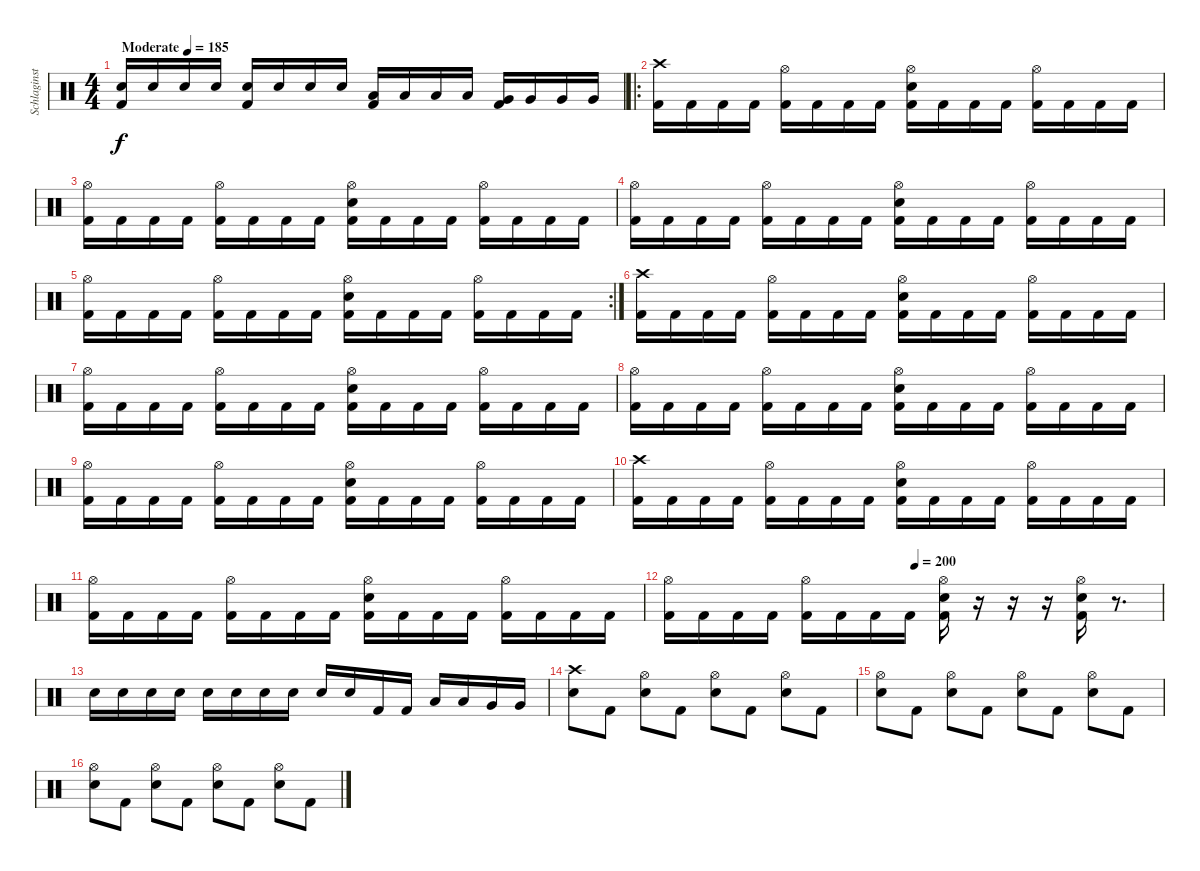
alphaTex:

\track ("Schlaginstrumente - Auswahl" "Schlaginst") {instrument percussion}
\staff {score}
\articulation defaults
\ts (4 4)
\tempo (185 "Moderate")
\clef neutral
\ks c
("Electric Snare (hit)" "Kick (hit) 2").16{dy f} "Electric Snare (hit)".16 "Electric Snare (hit)".16 "Electric Snare (hit)".16 ("Electric Snare (hit)" "Kick (hit) 2").16 "Electric Snare (hit)".16 "Electric Snare (hit)".16 "Electric Snare (hit)".16 ("Low Tom (hit)" "Kick (hit) 2").16 "Low Tom (hit)".16 "Low Tom (hit)".16 "Low Tom (hit)".16 ("Very Low Tom (hit)" "Kick (hit) 2").16 "Very Low Tom (hit)".16 "Very Low Tom (hit)".16 "Very Low Tom (hit)".16 |
\ro
("Crash high (hit)" "Kick (hit) 2").16 "Kick (hit) 2".16 "Kick (hit) 2".16 "Kick (hit) 2".16 ("Hi-Hat (open)" "Kick (hit) 2").16 "Kick (hit) 2".16 "Kick (hit) 2".16 "Kick (hit) 2".16 ("Hi-Hat (open)" "Electric Snare (hit)" "Kick (hit) 2").16 "Kick (hit) 2".16 "Kick (hit) 2".16 "Kick (hit) 2".16 ("Hi-Hat (open)" "Kick (hit) 2").16 "Kick (hit) 2".16 "Kick (hit) 2".16 "Kick (hit) 2".16 |
("Hi-Hat (open)" "Kick (hit) 2").16 "Kick (hit) 2".16 "Kick (hit) 2".16 "Kick (hit) 2".16 ("Hi-Hat (open)" "Kick (hit) 2").16 "Kick (hit) 2".16 "Kick (hit) 2".16 "Kick (hit) 2".16 ("Hi-Hat (open)" "Electric Snare (hit)" "Kick (hit) 2").16 "Kick (hit) 2".16 "Kick (hit) 2".16 "Kick (hit) 2".16 ("Hi-Hat (open)" "Kick (hit) 2").16 "Kick (hit) 2".16 "Kick (hit) 2".16 "Kick (hit) 2".16 |
("Hi-Hat (open)" "Kick (hit) 2").16 "Kick (hit) 2".16 "Kick (hit) 2".16 "Kick (hit) 2".16 ("Hi-Hat (open)" "Kick (hit) 2").16 "Kick (hit) 2".16 "Kick (hit) 2".16 "Kick (hit) 2".16 ("Hi-Hat (open)" "Electric Snare (hit)" "Kick (hit) 2").16 "Kick (hit) 2".16 "Kick (hit) 2".16 "Kick (hit) 2".16 ("Hi-Hat (open)" "Kick (hit) 2").16 "Kick (hit) 2".16 "Kick (hit) 2".16 "Kick (hit) 2".16 |
\rc 2
("Hi-Hat (open)" "Kick (hit) 2").16 "Kick (hit) 2".16 "Kick (hit) 2".16 "Kick (hit) 2".16 ("Hi-Hat (open)" "Kick (hit) 2").16 "Kick (hit) 2".16 "Kick (hit) 2".16 "Kick (hit) 2".16 ("Hi-Hat (open)" "Electric Snare (hit)" "Kick (hit) 2").16 "Kick (hit) 2".16 "Kick (hit) 2".16 "Kick (hit) 2".16 ("Hi-Hat (open)" "Kick (hit) 2").16 "Kick (hit) 2".16 "Kick (hit) 2".16 "Kick (hit) 2".16 |
("Crash high (hit)" "Kick (hit) 2").16 "Kick (hit) 2".16 "Kick (hit) 2".16 "Kick (hit) 2".16 ("Hi-Hat (open)" "Kick (hit) 2").16 "Kick (hit) 2".16 "Kick (hit) 2".16 "Kick (hit) 2".16 ("Hi-Hat (open)" "Electric Snare (hit)" "Kick (hit) 2").16 "Kick (hit) 2".16 "Kick (hit) 2".16 "Kick (hit) 2".16 ("Hi-Hat (open)" "Kick (hit) 2").16 "Kick (hit) 2".16 "Kick (hit) 2".16 "Kick (hit) 2".16 |
("Hi-Hat (open)" "Kick (hit) 2").16 "Kick (hit) 2".16 "Kick (hit) 2".16 "Kick (hit) 2".16 ("Hi-Hat (open)" "Kick (hit) 2").16 "Kick (hit) 2".16 "Kick (hit) 2".16 "Kick (hit) 2".16 ("Hi-Hat (open)" "Electric Snare (hit)" "Kick (hit) 2").16 "Kick (hit) 2".16 "Kick (hit) 2".16 "Kick (hit) 2".16 ("Hi-Hat (open)" "Kick (hit) 2").16 "Kick (hit) 2".16 "Kick (hit) 2".16 "Kick (hit) 2".16 |
("Hi-Hat (open)" "Kick (hit) 2").16 "Kick (hit) 2".16 "Kick (hit) 2".16 "Kick (hit) 2".16 ("Hi-Hat (open)" "Kick (hit) 2").16 "Kick (hit) 2".16 "Kick (hit) 2".16 "Kick (hit) 2".16 ("Hi-Hat (open)" "Electric Snare (hit)" "Kick (hit) 2").16 "Kick (hit) 2".16 "Kick (hit) 2".16 "Kick (hit) 2".16 ("Hi-Hat (open)" "Kick (hit) 2").16 "Kick (hit) 2".16 "Kick (hit) 2".16 "Kick (hit) 2".16 |
("Hi-Hat (open)" "Kick (hit) 2").16 "Kick (hit) 2".16 "Kick (hit) 2".16 "Kick (hit) 2".16 ("Hi-Hat (open)" "Kick (hit) 2").16 "Kick (hit) 2".16 "Kick (hit) 2".16 "Kick (hit) 2".16 ("Hi-Hat (open)" "Electric Snare (hit)" "Kick (hit) 2").16 "Kick (hit) 2".16 "Kick (hit) 2".16 "Kick (hit) 2".16 ("Hi-Hat (open)" "Kick (hit) 2").16 "Kick (hit) 2".16 "Kick (hit) 2".16 "Kick (hit) 2".16 |
("Crash high (hit)" "Kick (hit) 2").16 "Kick (hit) 2".16 "Kick (hit) 2".16 "Kick (hit) 2".16 ("Hi-Hat (open)" "Kick (hit) 2").16 "Kick (hit) 2".16 "Kick (hit) 2".16 "Kick (hit) 2".16 ("Hi-Hat (open)" "Electric Snare (hit)" "Kick (hit) 2").16 "Kick (hit) 2".16 "Kick (hit) 2".16 "Kick (hit) 2".16 ("Hi-Hat (open)" "Kick (hit) 2").16 "Kick (hit) 2".16 "Kick (hit) 2".16 "Kick (hit) 2".16 |
("Hi-Hat (open)" "Kick (hit) 2").16 "Kick (hit) 2".16 "Kick (hit) 2".16 "Kick (hit) 2".16 ("Hi-Hat (open)" "Kick (hit) 2").16 "Kick (hit) 2".16 "Kick (hit) 2".16 "Kick (hit) 2".16 ("Hi-Hat (open)" "Electric Snare (hit)" "Kick (hit) 2").16 "Kick (hit) 2".16 "Kick (hit) 2".16 "Kick (hit) 2".16 ("Hi-Hat (open)" "Kick (hit) 2").16 "Kick (hit) 2".16 "Kick (hit) 2".16 "Kick (hit) 2".16 |
\tempo (200 0.5)
("Hi-Hat (open)" "Kick (hit) 2").16 "Kick (hit) 2".16 "Kick (hit) 2".16 "Kick (hit) 2".16 ("Hi-Hat (open)" "Kick (hit) 2").16 "Kick (hit) 2".16 "Kick (hit) 2".16 "Kick (hit) 2".16 ("Hi-Hat (open)" "Electric Snare (hit)" "Kick (hit) 2").16 r.16 r.16 r.16 ("Hi-Hat (open)" "Electric Snare (hit)" "Kick (hit) 2").16 r.8{d} |
"Electric Snare (hit)".16 "Electric Snare (hit)".16 "Electric Snare (hit)".16 "Electric Snare (hit)".16 "Electric Snare (hit)".16 "Electric Snare (hit)".16 "Electric Snare (hit)".16 "Electric Snare (hit)".16 "Electric Snare (hit)".16 "Electric Snare (hit)".16 "Kick (hit) 2".16 "Kick (hit) 2".16 "Low Tom (hit)".16 "Low Tom (hit)".16 "Very Low Tom (hit)".16 "Very Low Tom (hit)".16 |
("Crash high (hit)" "Electric Snare (hit)").8 "Kick (hit) 2".8 ("Hi-Hat (open)" "Electric Snare (hit)").8 "Kick (hit) 2".8 ("Hi-Hat (open)" "Electric Snare (hit)").8 "Kick (hit) 2".8 ("Hi-Hat (open)" "Electric Snare (hit)").8 "Kick (hit) 2".8 |
("Hi-Hat (open)" "Electric Snare (hit)").8 "Kick (hit) 2".8 ("Hi-Hat (open)" "Electric Snare (hit)").8 "Kick (hit) 2".8 ("Hi-Hat (open)" "Electric Snare (hit)").8 "Kick (hit) 2".8 ("Hi-Hat (open)" "Electric Snare (hit)").8 "Kick (hit) 2".8 |
("Hi-Hat (open)" "Electric Snare (hit)").8 "Kick (hit) 2".8 ("Hi-Hat (open)" "Electric Snare (hit)").8 "Kick (hit) 2".8 ("Hi-Hat (open)" "Electric Snare (hit)").8 "Kick (hit) 2".8 ("Hi-Hat (open)" "Electric Snare (hit)").8 "Kick (hit) 2".8
